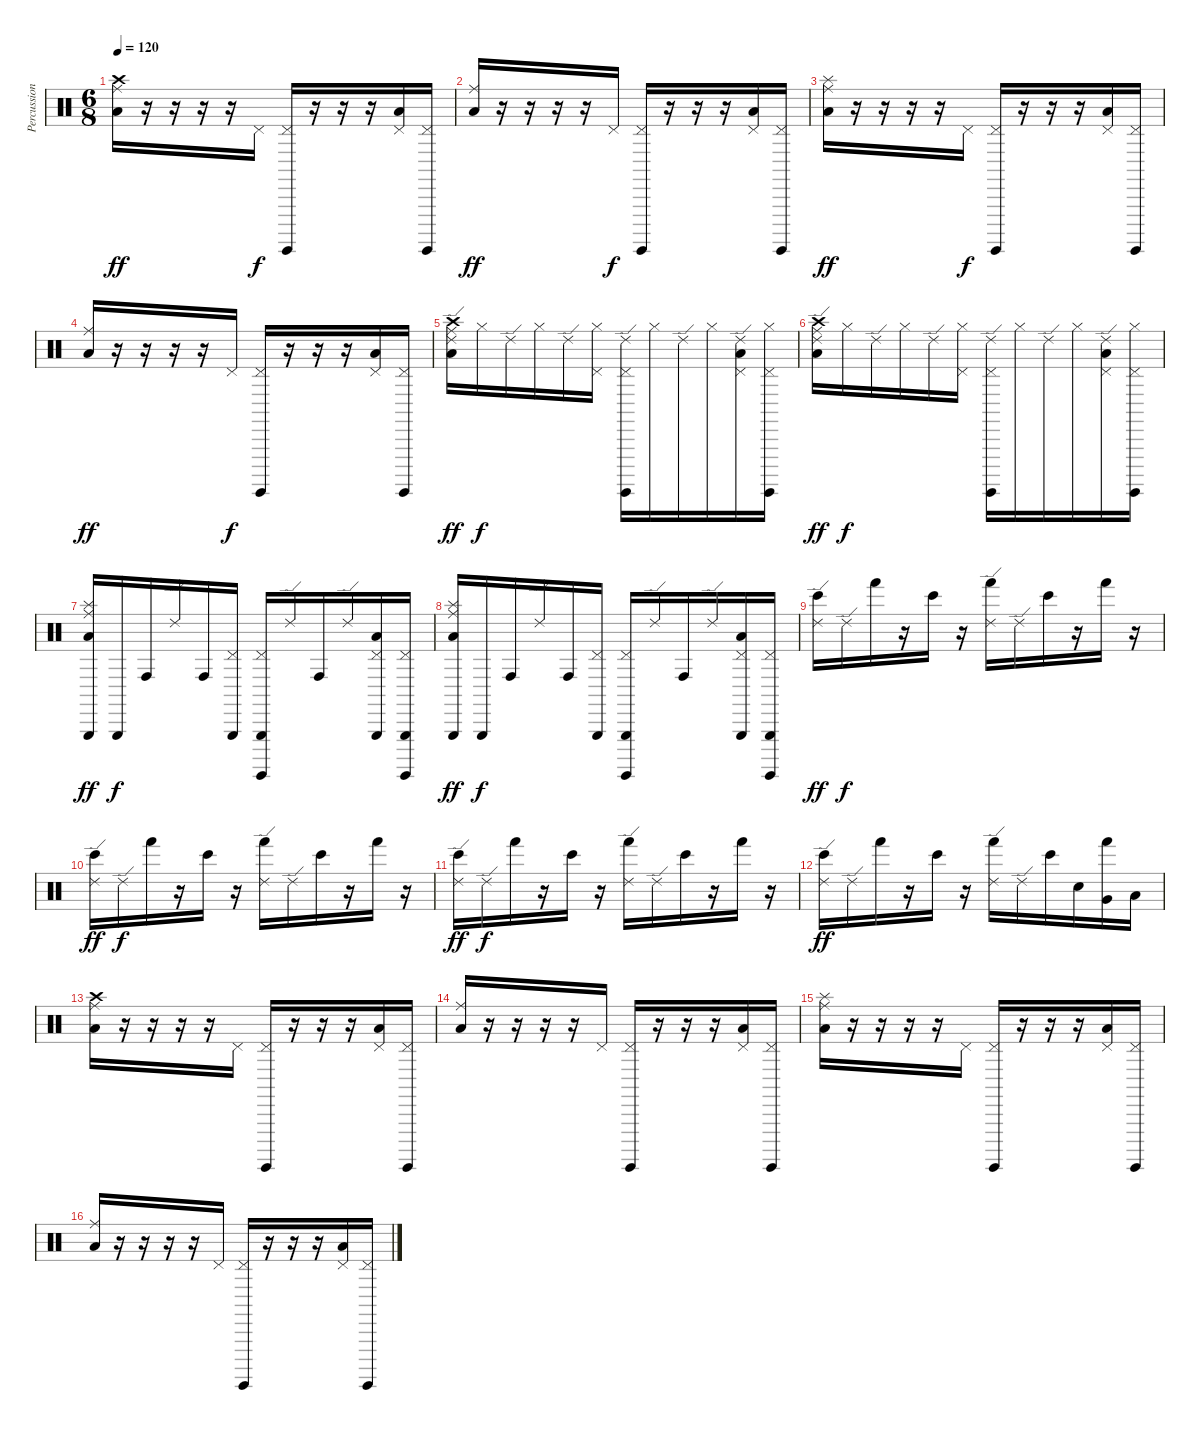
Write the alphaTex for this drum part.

\track ("Percussions" "Percussion") {instrument percussion}
\staff {score}
\articulation defaults
\ts (6 8)
\tempo 120
\clef neutral
\ks c
("Low Tom (hit)" "Ride (middle)" "Crash high (hit)").16{dy ff} r.16 r.16 r.16 r.16 "Pedal Hi-Hat (hit)".16{dy f} ("Surdo (hit)" "Pedal Hi-Hat (hit)").16 r.16 r.16 r.16 ("Low Tom (hit)" "Pedal Hi-Hat (hit)").16 ("Surdo (hit)" "Pedal Hi-Hat (hit)").16 |
("Low Tom (hit)" "Ride (middle)").16{dy ff} r.16 r.16 r.16 r.16 "Pedal Hi-Hat (hit)".16{dy f} ("Surdo (hit)" "Pedal Hi-Hat (hit)").16 r.16 r.16 r.16 ("Low Tom (hit)" "Pedal Hi-Hat (hit)").16 ("Surdo (hit)" "Pedal Hi-Hat (hit)").16 |
("Low Tom (hit)" "Ride (middle)" "Splash (hit)").16{dy ff} r.16 r.16 r.16 r.16 "Pedal Hi-Hat (hit)".16{dy f} ("Surdo (hit)" "Pedal Hi-Hat (hit)").16 r.16 r.16 r.16 ("Low Tom (hit)" "Pedal Hi-Hat (hit)").16 ("Surdo (hit)" "Pedal Hi-Hat (hit)").16 |
("Low Tom (hit)" "Ride (middle)").16{dy ff} r.16 r.16 r.16 r.16 "Pedal Hi-Hat (hit)".16{dy f} ("Surdo (hit)" "Pedal Hi-Hat (hit)").16 r.16 r.16 r.16 ("Low Tom (hit)" "Pedal Hi-Hat (hit)").16 ("Surdo (hit)" "Pedal Hi-Hat (hit)").16 |
("Low Tom (hit)" "Ride (middle)" "Ride (edge) 2" "Crash high (hit)").16{dy ff} "Hi-Hat (closed)".16{dy f} "Ride (edge) 2".16 "Hi-Hat (closed)".16 "Ride (edge) 2".16 ("Pedal Hi-Hat (hit)" "Hi-Hat (closed)").16 ("Surdo (hit)" "Pedal Hi-Hat (hit)" "Ride (edge) 2").16 "Hi-Hat (closed)".16 "Ride (edge) 2".16 "Hi-Hat (closed)".16 ("Low Tom (hit)" "Pedal Hi-Hat (hit)" "Ride (edge) 2").16 ("Surdo (hit)" "Pedal Hi-Hat (hit)" "Hi-Hat (closed)").16 |
("Low Tom (hit)" "Ride (middle)" "Ride (edge) 2" "Crash high (hit)").16{dy ff} "Hi-Hat (closed)".16{dy f} "Ride (edge) 2".16 "Hi-Hat (closed)".16 "Ride (edge) 2".16 ("Pedal Hi-Hat (hit)" "Hi-Hat (closed)").16 ("Surdo (hit)" "Pedal Hi-Hat (hit)" "Ride (edge) 2").16 "Hi-Hat (closed)".16 "Ride (edge) 2".16 "Hi-Hat (closed)".16 ("Low Tom (hit)" "Pedal Hi-Hat (hit)" "Ride (edge) 2").16 ("Surdo (hit)" "Pedal Hi-Hat (hit)" "Hi-Hat (closed)").16 |
("Low Tom (hit)" "Ride (middle)" "Triangle (hit)" "Splash (hit)").16{dy ff} "Triangle (hit)".16{dy f} "Conga high (hit)".16 "Ride (edge) 2".16 "Conga high (hit)".16 ("Pedal Hi-Hat (hit)" "Triangle (hit)").16 ("Surdo (hit)" "Pedal Hi-Hat (hit)" "Triangle (hit)").16 "Ride (edge) 2".16 "Conga high (hit)".16 "Ride (edge) 2".16 ("Low Tom (hit)" "Pedal Hi-Hat (hit)" "Triangle (hit)").16 ("Surdo (hit)" "Pedal Hi-Hat (hit)" "Triangle (hit)").16 |
("Low Tom (hit)" "Ride (middle)" "Triangle (hit)" "Splash (hit)").16{dy ff} "Triangle (hit)".16{dy f} "Conga high (hit)".16 "Ride (edge) 2".16 "Conga high (hit)".16 ("Pedal Hi-Hat (hit)" "Triangle (hit)").16 ("Surdo (hit)" "Pedal Hi-Hat (hit)" "Triangle (hit)").16 "Ride (edge) 2".16 "Conga high (hit)".16 "Ride (edge) 2".16 ("Low Tom (hit)" "Pedal Hi-Hat (hit)" "Triangle (hit)").16 ("Surdo (hit)" "Pedal Hi-Hat (hit)" "Triangle (hit)").16 |
("Ride (edge) 2" "Bongo High (hit)").16{dy ff} "Ride (edge) 2".16{dy f} "Hand (hit)".16 r.16 "Bongo High (hit)".16 r.16 ("Ride (edge) 2" "Hand (hit)").16 "Ride (edge) 2".16 "Bongo High (hit)".16 r.16 "Hand (hit)".16 r.16 |
("Ride (edge) 2" "Bongo High (hit)").16{dy ff} "Ride (edge) 2".16{dy f} "Hand (hit)".16 r.16 "Bongo High (hit)".16 r.16 ("Ride (edge) 2" "Hand (hit)").16 "Ride (edge) 2".16 "Bongo High (hit)".16 r.16 "Hand (hit)".16 r.16 |
("Ride (edge) 2" "Bongo High (hit)").16{dy ff} "Ride (edge) 2".16{dy f} "Hand (hit)".16 r.16 "Bongo High (hit)".16 r.16 ("Ride (edge) 2" "Hand (hit)").16 "Ride (edge) 2".16 "Bongo High (hit)".16 r.16 "Hand (hit)".16 r.16 |
("Ride (edge) 2" "Bongo High (hit)").16{dy ff} "Ride (edge) 2".16 "Hand (hit)".16 r.16 "Bongo High (hit)".16 r.16 ("Ride (edge) 2" "Hand (hit)").16 "Ride (edge) 2".16 "Bongo High (hit)".16 "Electric Snare (hit)".16 ("Very Low Tom (hit)" "Hand (hit)").16 "Low Tom (hit)".16 |
("Low Tom (hit)" "Ride (middle)" "Crash high (hit)").16 r.16 r.16 r.16 r.16 "Pedal Hi-Hat (hit)".16 ("Surdo (hit)" "Pedal Hi-Hat (hit)").16 r.16 r.16 r.16 ("Low Tom (hit)" "Pedal Hi-Hat (hit)").16 ("Surdo (hit)" "Pedal Hi-Hat (hit)").16 |
("Low Tom (hit)" "Ride (middle)").16 r.16 r.16 r.16 r.16 "Pedal Hi-Hat (hit)".16 ("Surdo (hit)" "Pedal Hi-Hat (hit)").16 r.16 r.16 r.16 ("Low Tom (hit)" "Pedal Hi-Hat (hit)").16 ("Surdo (hit)" "Pedal Hi-Hat (hit)").16 |
("Low Tom (hit)" "Ride (middle)" "Splash (hit)").16 r.16 r.16 r.16 r.16 "Pedal Hi-Hat (hit)".16 ("Surdo (hit)" "Pedal Hi-Hat (hit)").16 r.16 r.16 r.16 ("Low Tom (hit)" "Pedal Hi-Hat (hit)").16 ("Surdo (hit)" "Pedal Hi-Hat (hit)").16 |
("Low Tom (hit)" "Ride (middle)").16 r.16 r.16 r.16 r.16 "Pedal Hi-Hat (hit)".16 ("Surdo (hit)" "Pedal Hi-Hat (hit)").16 r.16 r.16 r.16 ("Low Tom (hit)" "Pedal Hi-Hat (hit)").16 ("Surdo (hit)" "Pedal Hi-Hat (hit)").16
